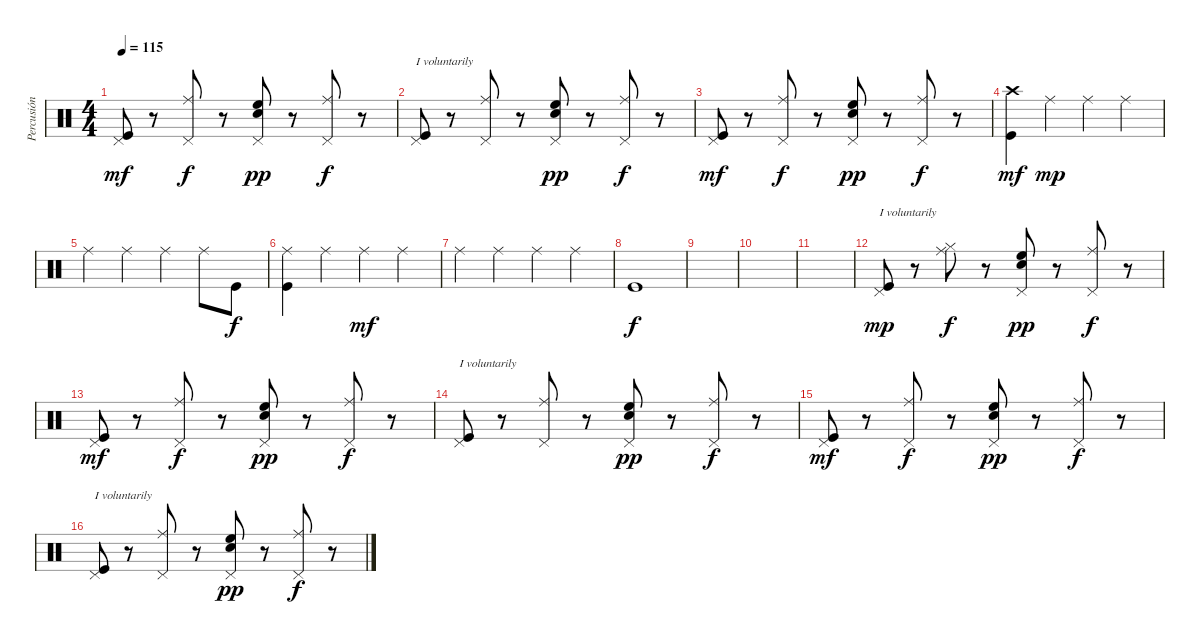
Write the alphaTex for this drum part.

\track ("Percusión" "Percusión") {instrument percussion}
\staff {score}
\articulation defaults
\ts (4 4)
\tempo 115
\clef neutral
\ks c
("Pedal Hi-Hat (hit)" "Kick (hit)").8{dy mf} r.8 ("Pedal Hi-Hat (hit)" "Ride (middle)").8{dy f} r.8 ("Pedal Hi-Hat (hit)" "High Floor Tom (hit)" "Electric Snare (hit)").8{dy pp} r.8 ("Pedal Hi-Hat (hit)" "Ride (middle)").8{dy f} r.8 |
("Pedal Hi-Hat (hit)" "Kick (hit)").8{txt "I voluntarily"} r.8 ("Pedal Hi-Hat (hit)" "Ride (middle)").8 r.8 ("Pedal Hi-Hat (hit)" "High Floor Tom (hit)" "Electric Snare (hit)").8{dy pp} r.8 ("Pedal Hi-Hat (hit)" "Ride (middle)").8{dy f} r.8 |
("Pedal Hi-Hat (hit)" "Kick (hit)").8{dy mf} r.8 ("Pedal Hi-Hat (hit)" "Ride (middle)").8{dy f} r.8 ("Pedal Hi-Hat (hit)" "High Floor Tom (hit)" "Electric Snare (hit)").8{dy pp} r.8 ("Pedal Hi-Hat (hit)" "Ride (middle)").8{dy f} r.8 |
("Crash high (hit)" "Kick (hit)").4{dy mf} "Ride (middle)".4{dy mp} "Ride (middle)".4 "Ride (middle)".4 |
"Ride (middle)".4 "Ride (middle)".4 "Ride (middle)".4 "Ride (middle)".8 "Kick (hit)".8{dy f} |
("Ride (middle)" "Kick (hit)").4 "Ride (middle)".4 "Ride (middle)".4{dy mf} "Ride (middle)".4 |
"Ride (middle)".4 "Ride (middle)".4 "Ride (middle)".4 "Ride (middle)".4 |
"Kick (hit)".1{dy f} |
|
|
|
("Pedal Hi-Hat (hit)" "Kick (hit)").8{txt "I voluntarily" dy mp} r.8 ("Hi-Hat (closed)" "Ride (middle)").8{dy f} r.8 ("Pedal Hi-Hat (hit)" "High Floor Tom (hit)" "Electric Snare (hit)").8{dy pp} r.8 ("Pedal Hi-Hat (hit)" "Ride (middle)").8{dy f} r.8 |
("Pedal Hi-Hat (hit)" "Kick (hit)").8{dy mf} r.8 ("Pedal Hi-Hat (hit)" "Ride (middle)").8{dy f} r.8 ("Pedal Hi-Hat (hit)" "High Floor Tom (hit)" "Electric Snare (hit)").8{dy pp} r.8 ("Pedal Hi-Hat (hit)" "Ride (middle)").8{dy f} r.8 |
("Pedal Hi-Hat (hit)" "Kick (hit)").8{txt "I voluntarily"} r.8 ("Pedal Hi-Hat (hit)" "Ride (middle)").8 r.8 ("Pedal Hi-Hat (hit)" "High Floor Tom (hit)" "Electric Snare (hit)").8{dy pp} r.8 ("Pedal Hi-Hat (hit)" "Ride (middle)").8{dy f} r.8 |
("Pedal Hi-Hat (hit)" "Kick (hit)").8{dy mf} r.8 ("Pedal Hi-Hat (hit)" "Ride (middle)").8{dy f} r.8 ("Pedal Hi-Hat (hit)" "High Floor Tom (hit)" "Electric Snare (hit)").8{dy pp} r.8 ("Pedal Hi-Hat (hit)" "Ride (middle)").8{dy f} r.8 |
("Pedal Hi-Hat (hit)" "Kick (hit)").8{txt "I voluntarily"} r.8 ("Pedal Hi-Hat (hit)" "Ride (middle)").8 r.8 ("Pedal Hi-Hat (hit)" "High Floor Tom (hit)" "Electric Snare (hit)").8{dy pp} r.8 ("Pedal Hi-Hat (hit)" "Ride (middle)").8{dy f} r.8
